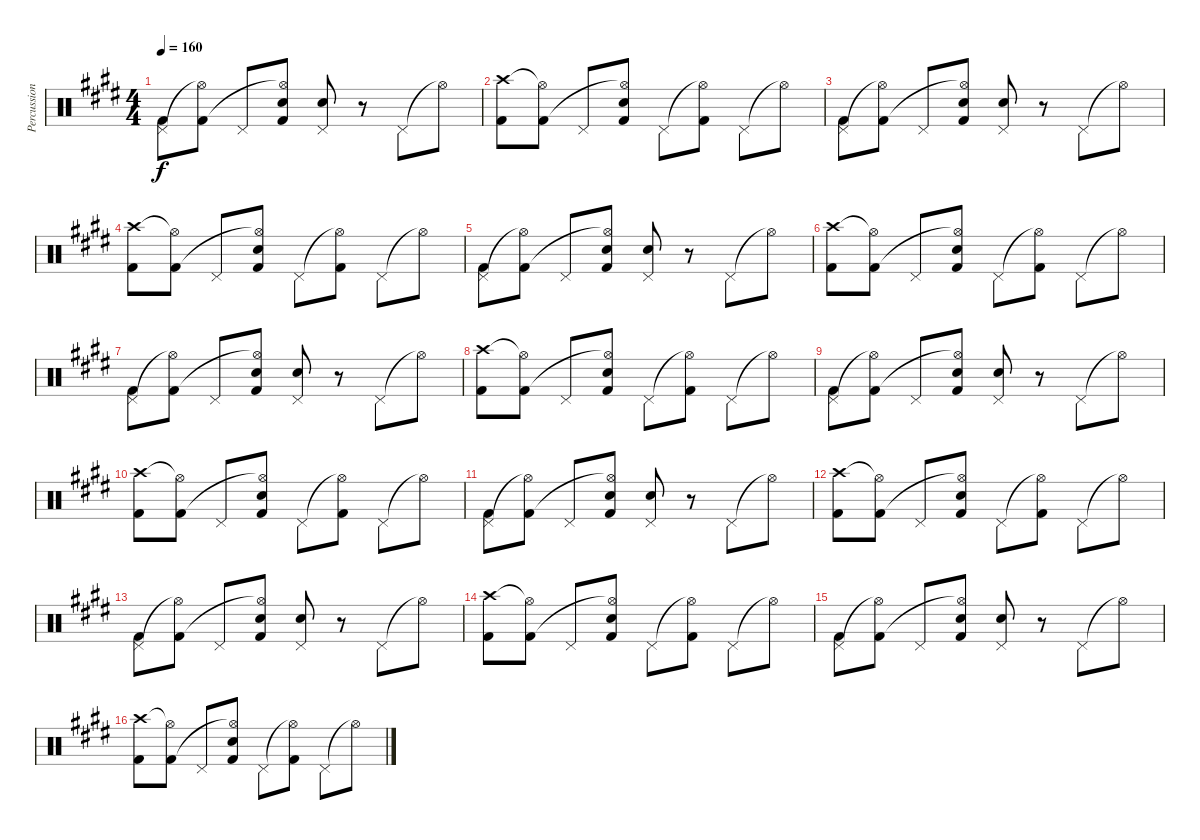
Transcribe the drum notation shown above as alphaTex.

\track ("Percussion" "Percussion") {instrument percussion}
\staff {score}
\articulation defaults
\ts (4 4)
\tempo 160
\clef neutral
\ks c#minor
("Pedal Hi-Hat (hit)" "Kick (hit) 2").8{dy f} ("Hi-Hat (open)"{t} "Kick (hit) 2").8 "Pedal Hi-Hat (hit)".8 ("Electric Snare (hit)" "Hi-Hat (open)"{t} "Kick (hit) 2").8 ("Electric Snare (hit)" "Pedal Hi-Hat (hit)").8 r.8 "Pedal Hi-Hat (hit)".8 "Hi-Hat (open)"{t}.8 |
("Crash high (hit)" "Kick (hit) 2").8 ("Hi-Hat (open)"{t} "Kick (hit) 2").8 "Pedal Hi-Hat (hit)".8 ("Electric Snare (hit)" "Hi-Hat (open)"{t} "Kick (hit) 2").8 "Pedal Hi-Hat (hit)".8 ("Hi-Hat (open)"{t} "Kick (hit) 2").8 "Pedal Hi-Hat (hit)".8 "Hi-Hat (open)"{t}.8 |
("Pedal Hi-Hat (hit)" "Kick (hit) 2").8 ("Hi-Hat (open)"{t} "Kick (hit) 2").8 "Pedal Hi-Hat (hit)".8 ("Electric Snare (hit)" "Hi-Hat (open)"{t} "Kick (hit) 2").8 ("Electric Snare (hit)" "Pedal Hi-Hat (hit)").8 r.8 "Pedal Hi-Hat (hit)".8 "Hi-Hat (open)"{t}.8 |
("Crash high (hit)" "Kick (hit) 2").8 ("Hi-Hat (open)"{t} "Kick (hit) 2").8 "Pedal Hi-Hat (hit)".8 ("Electric Snare (hit)" "Hi-Hat (open)"{t} "Kick (hit) 2").8 "Pedal Hi-Hat (hit)".8 ("Hi-Hat (open)"{t} "Kick (hit) 2").8 "Pedal Hi-Hat (hit)".8 "Hi-Hat (open)"{t}.8 |
("Pedal Hi-Hat (hit)" "Kick (hit) 2").8 ("Hi-Hat (open)"{t} "Kick (hit) 2").8 "Pedal Hi-Hat (hit)".8 ("Electric Snare (hit)" "Hi-Hat (open)"{t} "Kick (hit) 2").8 ("Electric Snare (hit)" "Pedal Hi-Hat (hit)").8 r.8 "Pedal Hi-Hat (hit)".8 "Hi-Hat (open)"{t}.8 |
("Crash high (hit)" "Kick (hit) 2").8 ("Hi-Hat (open)"{t} "Kick (hit) 2").8 "Pedal Hi-Hat (hit)".8 ("Electric Snare (hit)" "Hi-Hat (open)"{t} "Kick (hit) 2").8 "Pedal Hi-Hat (hit)".8 ("Hi-Hat (open)"{t} "Kick (hit) 2").8 "Pedal Hi-Hat (hit)".8 "Hi-Hat (open)"{t}.8 |
("Pedal Hi-Hat (hit)" "Kick (hit) 2").8 ("Hi-Hat (open)"{t} "Kick (hit) 2").8 "Pedal Hi-Hat (hit)".8 ("Electric Snare (hit)" "Hi-Hat (open)"{t} "Kick (hit) 2").8 ("Electric Snare (hit)" "Pedal Hi-Hat (hit)").8 r.8 "Pedal Hi-Hat (hit)".8 "Hi-Hat (open)"{t}.8 |
("Crash high (hit)" "Kick (hit) 2").8 ("Hi-Hat (open)"{t} "Kick (hit) 2").8 "Pedal Hi-Hat (hit)".8 ("Electric Snare (hit)" "Hi-Hat (open)"{t} "Kick (hit) 2").8 "Pedal Hi-Hat (hit)".8 ("Hi-Hat (open)"{t} "Kick (hit) 2").8 "Pedal Hi-Hat (hit)".8 "Hi-Hat (open)"{t}.8 |
("Pedal Hi-Hat (hit)" "Kick (hit) 2").8 ("Hi-Hat (open)"{t} "Kick (hit) 2").8 "Pedal Hi-Hat (hit)".8 ("Electric Snare (hit)" "Hi-Hat (open)"{t} "Kick (hit) 2").8 ("Electric Snare (hit)" "Pedal Hi-Hat (hit)").8 r.8 "Pedal Hi-Hat (hit)".8 "Hi-Hat (open)"{t}.8 |
("Crash high (hit)" "Kick (hit) 2").8 ("Hi-Hat (open)"{t} "Kick (hit) 2").8 "Pedal Hi-Hat (hit)".8 ("Electric Snare (hit)" "Hi-Hat (open)"{t} "Kick (hit) 2").8 "Pedal Hi-Hat (hit)".8 ("Hi-Hat (open)"{t} "Kick (hit) 2").8 "Pedal Hi-Hat (hit)".8 "Hi-Hat (open)"{t}.8 |
("Pedal Hi-Hat (hit)" "Kick (hit) 2").8 ("Hi-Hat (open)"{t} "Kick (hit) 2").8 "Pedal Hi-Hat (hit)".8 ("Electric Snare (hit)" "Hi-Hat (open)"{t} "Kick (hit) 2").8 ("Electric Snare (hit)" "Pedal Hi-Hat (hit)").8 r.8 "Pedal Hi-Hat (hit)".8 "Hi-Hat (open)"{t}.8 |
("Crash high (hit)" "Kick (hit) 2").8 ("Hi-Hat (open)"{t} "Kick (hit) 2").8 "Pedal Hi-Hat (hit)".8 ("Electric Snare (hit)" "Hi-Hat (open)"{t} "Kick (hit) 2").8 "Pedal Hi-Hat (hit)".8 ("Hi-Hat (open)"{t} "Kick (hit) 2").8 "Pedal Hi-Hat (hit)".8 "Hi-Hat (open)"{t}.8 |
("Pedal Hi-Hat (hit)" "Kick (hit) 2").8 ("Hi-Hat (open)"{t} "Kick (hit) 2").8 "Pedal Hi-Hat (hit)".8 ("Electric Snare (hit)" "Hi-Hat (open)"{t} "Kick (hit) 2").8 ("Electric Snare (hit)" "Pedal Hi-Hat (hit)").8 r.8 "Pedal Hi-Hat (hit)".8 "Hi-Hat (open)"{t}.8 |
("Crash high (hit)" "Kick (hit) 2").8 ("Hi-Hat (open)"{t} "Kick (hit) 2").8 "Pedal Hi-Hat (hit)".8 ("Electric Snare (hit)" "Hi-Hat (open)"{t} "Kick (hit) 2").8 "Pedal Hi-Hat (hit)".8 ("Hi-Hat (open)"{t} "Kick (hit) 2").8 "Pedal Hi-Hat (hit)".8 "Hi-Hat (open)"{t}.8 |
("Pedal Hi-Hat (hit)" "Kick (hit) 2").8 ("Hi-Hat (open)"{t} "Kick (hit) 2").8 "Pedal Hi-Hat (hit)".8 ("Electric Snare (hit)" "Hi-Hat (open)"{t} "Kick (hit) 2").8 ("Electric Snare (hit)" "Pedal Hi-Hat (hit)").8 r.8 "Pedal Hi-Hat (hit)".8 "Hi-Hat (open)"{t}.8 |
("Crash high (hit)" "Kick (hit) 2").8 ("Hi-Hat (open)"{t} "Kick (hit) 2").8 "Pedal Hi-Hat (hit)".8 ("Electric Snare (hit)" "Hi-Hat (open)"{t} "Kick (hit) 2").8 "Pedal Hi-Hat (hit)".8 ("Hi-Hat (open)"{t} "Kick (hit) 2").8 "Pedal Hi-Hat (hit)".8 "Hi-Hat (open)"{t}.8
